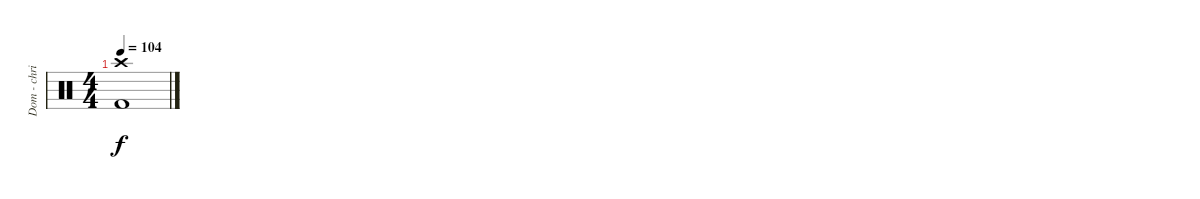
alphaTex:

\track ("Dom - chris" "Dom - chri") {instrument percussion}
\staff {score}
\articulation defaults
\ts (4 4)
\tempo 104
\clef neutral
\ks c
("Crash high (hit)" "Kick (hit) 2").1{dy f}
